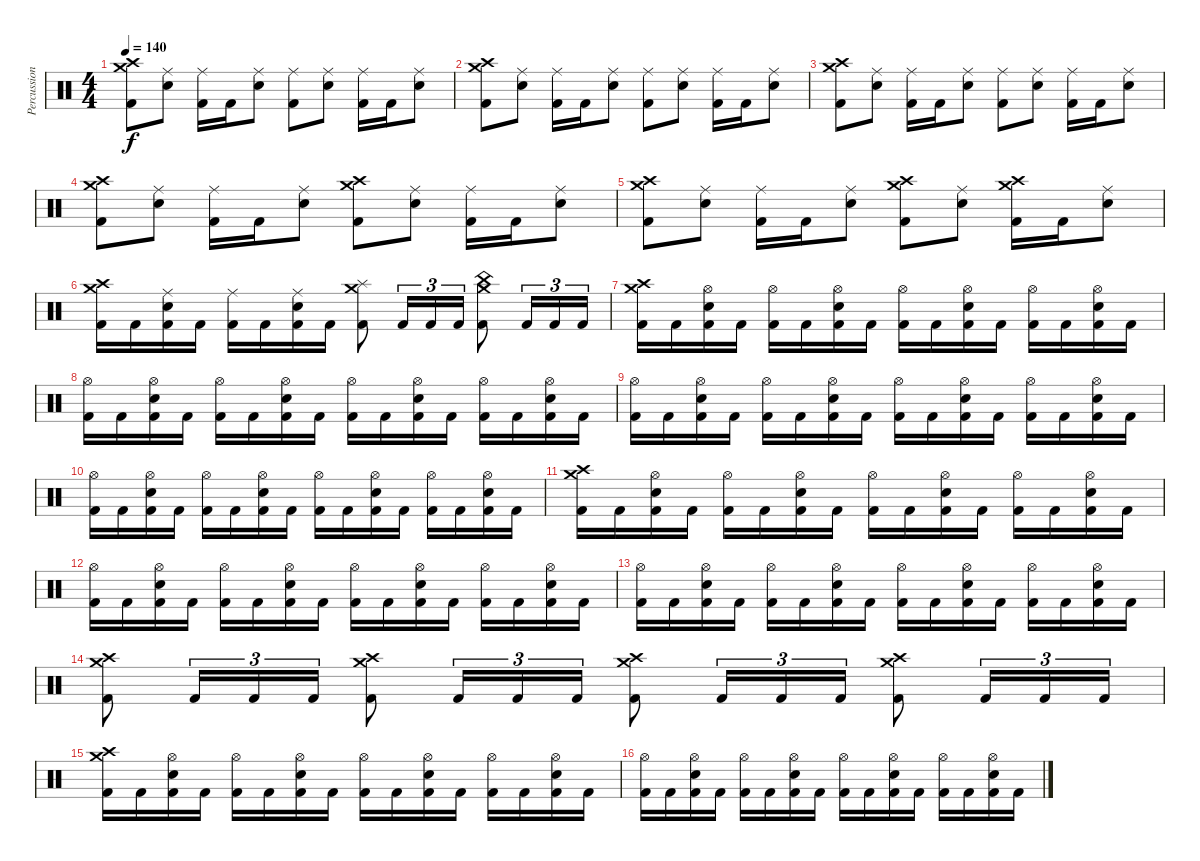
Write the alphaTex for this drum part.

\track ("Percussion" "Percussion") {instrument percussion}
\staff {score}
\articulation defaults
\ts (4 4)
\tempo 140
\clef neutral
\ks c
("Kick (hit) 2" "Crash high (hit)" "Crash medium (hit)").8{dy f} ("Electric Snare (hit)" "Ride (middle)").8 ("Kick (hit) 2" "Ride (middle)").16 "Kick (hit) 2".16 ("Electric Snare (hit)" "Ride (middle)").8 ("Kick (hit) 2" "Ride (middle)").8 ("Electric Snare (hit)" "Ride (middle)").8 ("Kick (hit) 2" "Ride (middle)").16 "Kick (hit) 2".16 ("Electric Snare (hit)" "Ride (middle)").8 |
("Kick (hit) 2" "Crash high (hit)" "Crash medium (hit)").8 ("Electric Snare (hit)" "Ride (middle)").8 ("Kick (hit) 2" "Ride (middle)").16 "Kick (hit) 2".16 ("Electric Snare (hit)" "Ride (middle)").8 ("Kick (hit) 2" "Ride (middle)").8 ("Electric Snare (hit)" "Ride (middle)").8 ("Kick (hit) 2" "Ride (middle)").16 "Kick (hit) 2".16 ("Electric Snare (hit)" "Ride (middle)").8 |
("Kick (hit) 2" "Crash high (hit)" "Crash medium (hit)").8 ("Electric Snare (hit)" "Ride (middle)").8 ("Kick (hit) 2" "Ride (middle)").16 "Kick (hit) 2".16 ("Electric Snare (hit)" "Ride (middle)").8 ("Kick (hit) 2" "Ride (middle)").8 ("Electric Snare (hit)" "Ride (middle)").8 ("Kick (hit) 2" "Ride (middle)").16 "Kick (hit) 2".16 ("Electric Snare (hit)" "Ride (middle)").8 |
("Kick (hit) 2" "Crash high (hit)" "Crash medium (hit)").8 ("Electric Snare (hit)" "Ride (middle)").8 ("Kick (hit) 2" "Ride (middle)").16 "Kick (hit) 2".16 ("Electric Snare (hit)" "Ride (middle)").8 ("Kick (hit) 2" "Crash high (hit)" "Crash medium (hit)").8 ("Electric Snare (hit)" "Ride (middle)").8 ("Kick (hit) 2" "Ride (middle)").16 "Kick (hit) 2".16 ("Electric Snare (hit)" "Ride (middle)").8 |
("Kick (hit) 2" "Crash high (hit)" "Crash medium (hit)").8 ("Electric Snare (hit)" "Ride (middle)").8 ("Kick (hit) 2" "Ride (middle)").16 "Kick (hit) 2".16 ("Electric Snare (hit)" "Ride (middle)").8 ("Kick (hit) 2" "Crash high (hit)" "Crash medium (hit)").8 ("Electric Snare (hit)" "Ride (middle)").8 ("Kick (hit) 2" "Crash high (hit)" "Crash medium (hit)").16 "Kick (hit) 2".16 ("Electric Snare (hit)" "Ride (middle)").8 |
("Kick (hit) 2" "Crash high (hit)" "Crash medium (hit)").16 "Kick (hit) 2".16 ("Kick (hit) 2" "Electric Snare (hit)" "Ride (middle)").16 "Kick (hit) 2".16 ("Kick (hit) 2" "Ride (middle)").16 "Kick (hit) 2".16 ("Kick (hit) 2" "Electric Snare (hit)" "Ride (middle)").16 "Kick (hit) 2".16 ("Kick (hit) 2" "Splash (hit)" "Crash medium (hit)").8 "Kick (hit) 2".16{tu (3 2)} "Kick (hit) 2".16{tu (3 2)} "Kick (hit) 2".16{tu (3 2)} ("Kick (hit) 2" "China (hit)" "Crash medium (hit)").8 "Kick (hit) 2".16{tu (3 2)} "Kick (hit) 2".16{tu (3 2)} "Kick (hit) 2".16{tu (3 2)} |
("Kick (hit) 2" "Crash high (hit)" "Crash medium (hit)").16 "Kick (hit) 2".16 ("Kick (hit) 2" "Electric Snare (hit)" "Hi-Hat (open)").16 "Kick (hit) 2".16 ("Kick (hit) 2" "Hi-Hat (open)").16 "Kick (hit) 2".16 ("Kick (hit) 2" "Electric Snare (hit)" "Hi-Hat (open)").16 "Kick (hit) 2".16 ("Kick (hit) 2" "Hi-Hat (open)").16 "Kick (hit) 2".16 ("Kick (hit) 2" "Electric Snare (hit)" "Hi-Hat (open)").16 "Kick (hit) 2".16 ("Kick (hit) 2" "Hi-Hat (open)").16 "Kick (hit) 2".16 ("Kick (hit) 2" "Electric Snare (hit)" "Hi-Hat (open)").16 "Kick (hit) 2".16 |
("Kick (hit) 2" "Hi-Hat (open)").16 "Kick (hit) 2".16 ("Kick (hit) 2" "Electric Snare (hit)" "Hi-Hat (open)").16 "Kick (hit) 2".16 ("Kick (hit) 2" "Hi-Hat (open)").16 "Kick (hit) 2".16 ("Kick (hit) 2" "Electric Snare (hit)" "Hi-Hat (open)").16 "Kick (hit) 2".16 ("Kick (hit) 2" "Hi-Hat (open)").16 "Kick (hit) 2".16 ("Kick (hit) 2" "Electric Snare (hit)" "Hi-Hat (open)").16 "Kick (hit) 2".16 ("Kick (hit) 2" "Hi-Hat (open)").16 "Kick (hit) 2".16 ("Kick (hit) 2" "Electric Snare (hit)" "Hi-Hat (open)").16 "Kick (hit) 2".16 |
("Kick (hit) 2" "Hi-Hat (open)").16 "Kick (hit) 2".16 ("Kick (hit) 2" "Electric Snare (hit)" "Hi-Hat (open)").16 "Kick (hit) 2".16 ("Kick (hit) 2" "Hi-Hat (open)").16 "Kick (hit) 2".16 ("Kick (hit) 2" "Electric Snare (hit)" "Hi-Hat (open)").16 "Kick (hit) 2".16 ("Kick (hit) 2" "Hi-Hat (open)").16 "Kick (hit) 2".16 ("Kick (hit) 2" "Electric Snare (hit)" "Hi-Hat (open)").16 "Kick (hit) 2".16 ("Kick (hit) 2" "Hi-Hat (open)").16 "Kick (hit) 2".16 ("Kick (hit) 2" "Electric Snare (hit)" "Hi-Hat (open)").16 "Kick (hit) 2".16 |
("Kick (hit) 2" "Hi-Hat (open)").16 "Kick (hit) 2".16 ("Kick (hit) 2" "Electric Snare (hit)" "Hi-Hat (open)").16 "Kick (hit) 2".16 ("Kick (hit) 2" "Hi-Hat (open)").16 "Kick (hit) 2".16 ("Kick (hit) 2" "Electric Snare (hit)" "Hi-Hat (open)").16 "Kick (hit) 2".16 ("Kick (hit) 2" "Hi-Hat (open)").16 "Kick (hit) 2".16 ("Kick (hit) 2" "Electric Snare (hit)" "Hi-Hat (open)").16 "Kick (hit) 2".16 ("Kick (hit) 2" "Hi-Hat (open)").16 "Kick (hit) 2".16 ("Kick (hit) 2" "Electric Snare (hit)" "Hi-Hat (open)").16 "Kick (hit) 2".16 |
("Kick (hit) 2" "Crash high (hit)" "Crash medium (hit)").16 "Kick (hit) 2".16 ("Kick (hit) 2" "Electric Snare (hit)" "Hi-Hat (open)").16 "Kick (hit) 2".16 ("Kick (hit) 2" "Hi-Hat (open)").16 "Kick (hit) 2".16 ("Kick (hit) 2" "Electric Snare (hit)" "Hi-Hat (open)").16 "Kick (hit) 2".16 ("Kick (hit) 2" "Hi-Hat (open)").16 "Kick (hit) 2".16 ("Kick (hit) 2" "Electric Snare (hit)" "Hi-Hat (open)").16 "Kick (hit) 2".16 ("Kick (hit) 2" "Hi-Hat (open)").16 "Kick (hit) 2".16 ("Kick (hit) 2" "Electric Snare (hit)" "Hi-Hat (open)").16 "Kick (hit) 2".16 |
("Kick (hit) 2" "Hi-Hat (open)").16 "Kick (hit) 2".16 ("Kick (hit) 2" "Electric Snare (hit)" "Hi-Hat (open)").16 "Kick (hit) 2".16 ("Kick (hit) 2" "Hi-Hat (open)").16 "Kick (hit) 2".16 ("Kick (hit) 2" "Electric Snare (hit)" "Hi-Hat (open)").16 "Kick (hit) 2".16 ("Kick (hit) 2" "Hi-Hat (open)").16 "Kick (hit) 2".16 ("Kick (hit) 2" "Electric Snare (hit)" "Hi-Hat (open)").16 "Kick (hit) 2".16 ("Kick (hit) 2" "Hi-Hat (open)").16 "Kick (hit) 2".16 ("Kick (hit) 2" "Electric Snare (hit)" "Hi-Hat (open)").16 "Kick (hit) 2".16 |
("Kick (hit) 2" "Hi-Hat (open)").16 "Kick (hit) 2".16 ("Kick (hit) 2" "Electric Snare (hit)" "Hi-Hat (open)").16 "Kick (hit) 2".16 ("Kick (hit) 2" "Hi-Hat (open)").16 "Kick (hit) 2".16 ("Kick (hit) 2" "Electric Snare (hit)" "Hi-Hat (open)").16 "Kick (hit) 2".16 ("Kick (hit) 2" "Hi-Hat (open)").16 "Kick (hit) 2".16 ("Kick (hit) 2" "Electric Snare (hit)" "Hi-Hat (open)").16 "Kick (hit) 2".16 ("Kick (hit) 2" "Hi-Hat (open)").16 "Kick (hit) 2".16 ("Kick (hit) 2" "Electric Snare (hit)" "Hi-Hat (open)").16 "Kick (hit) 2".16 |
("Kick (hit) 2" "Crash high (hit)" "Crash medium (hit)").8 "Kick (hit) 2".16{tu (3 2)} "Kick (hit) 2".16{tu (3 2)} "Kick (hit) 2".16{tu (3 2)} ("Kick (hit) 2" "Crash high (hit)" "Crash medium (hit)").8 "Kick (hit) 2".16{tu (3 2)} "Kick (hit) 2".16{tu (3 2)} "Kick (hit) 2".16{tu (3 2)} ("Kick (hit) 2" "Crash high (hit)" "Crash medium (hit)").8 "Kick (hit) 2".16{tu (3 2)} "Kick (hit) 2".16{tu (3 2)} "Kick (hit) 2".16{tu (3 2)} ("Kick (hit) 2" "Crash high (hit)" "Crash medium (hit)").8 "Kick (hit) 2".16{tu (3 2)} "Kick (hit) 2".16{tu (3 2)} "Kick (hit) 2".16{tu (3 2)} |
("Kick (hit) 2" "Crash high (hit)" "Crash medium (hit)").16 "Kick (hit) 2".16 ("Kick (hit) 2" "Electric Snare (hit)" "Hi-Hat (open)").16 "Kick (hit) 2".16 ("Kick (hit) 2" "Hi-Hat (open)").16 "Kick (hit) 2".16 ("Kick (hit) 2" "Electric Snare (hit)" "Hi-Hat (open)").16 "Kick (hit) 2".16 ("Kick (hit) 2" "Hi-Hat (open)").16 "Kick (hit) 2".16 ("Kick (hit) 2" "Electric Snare (hit)" "Hi-Hat (open)").16 "Kick (hit) 2".16 ("Kick (hit) 2" "Hi-Hat (open)").16 "Kick (hit) 2".16 ("Kick (hit) 2" "Electric Snare (hit)" "Hi-Hat (open)").16 "Kick (hit) 2".16 |
("Kick (hit) 2" "Hi-Hat (open)").16 "Kick (hit) 2".16 ("Kick (hit) 2" "Electric Snare (hit)" "Hi-Hat (open)").16 "Kick (hit) 2".16 ("Kick (hit) 2" "Hi-Hat (open)").16 "Kick (hit) 2".16 ("Kick (hit) 2" "Electric Snare (hit)" "Hi-Hat (open)").16 "Kick (hit) 2".16 ("Kick (hit) 2" "Hi-Hat (open)").16 "Kick (hit) 2".16 ("Kick (hit) 2" "Electric Snare (hit)" "Hi-Hat (open)").16 "Kick (hit) 2".16 ("Kick (hit) 2" "Hi-Hat (open)").16 "Kick (hit) 2".16 ("Kick (hit) 2" "Electric Snare (hit)" "Hi-Hat (open)").16 "Kick (hit) 2".16
